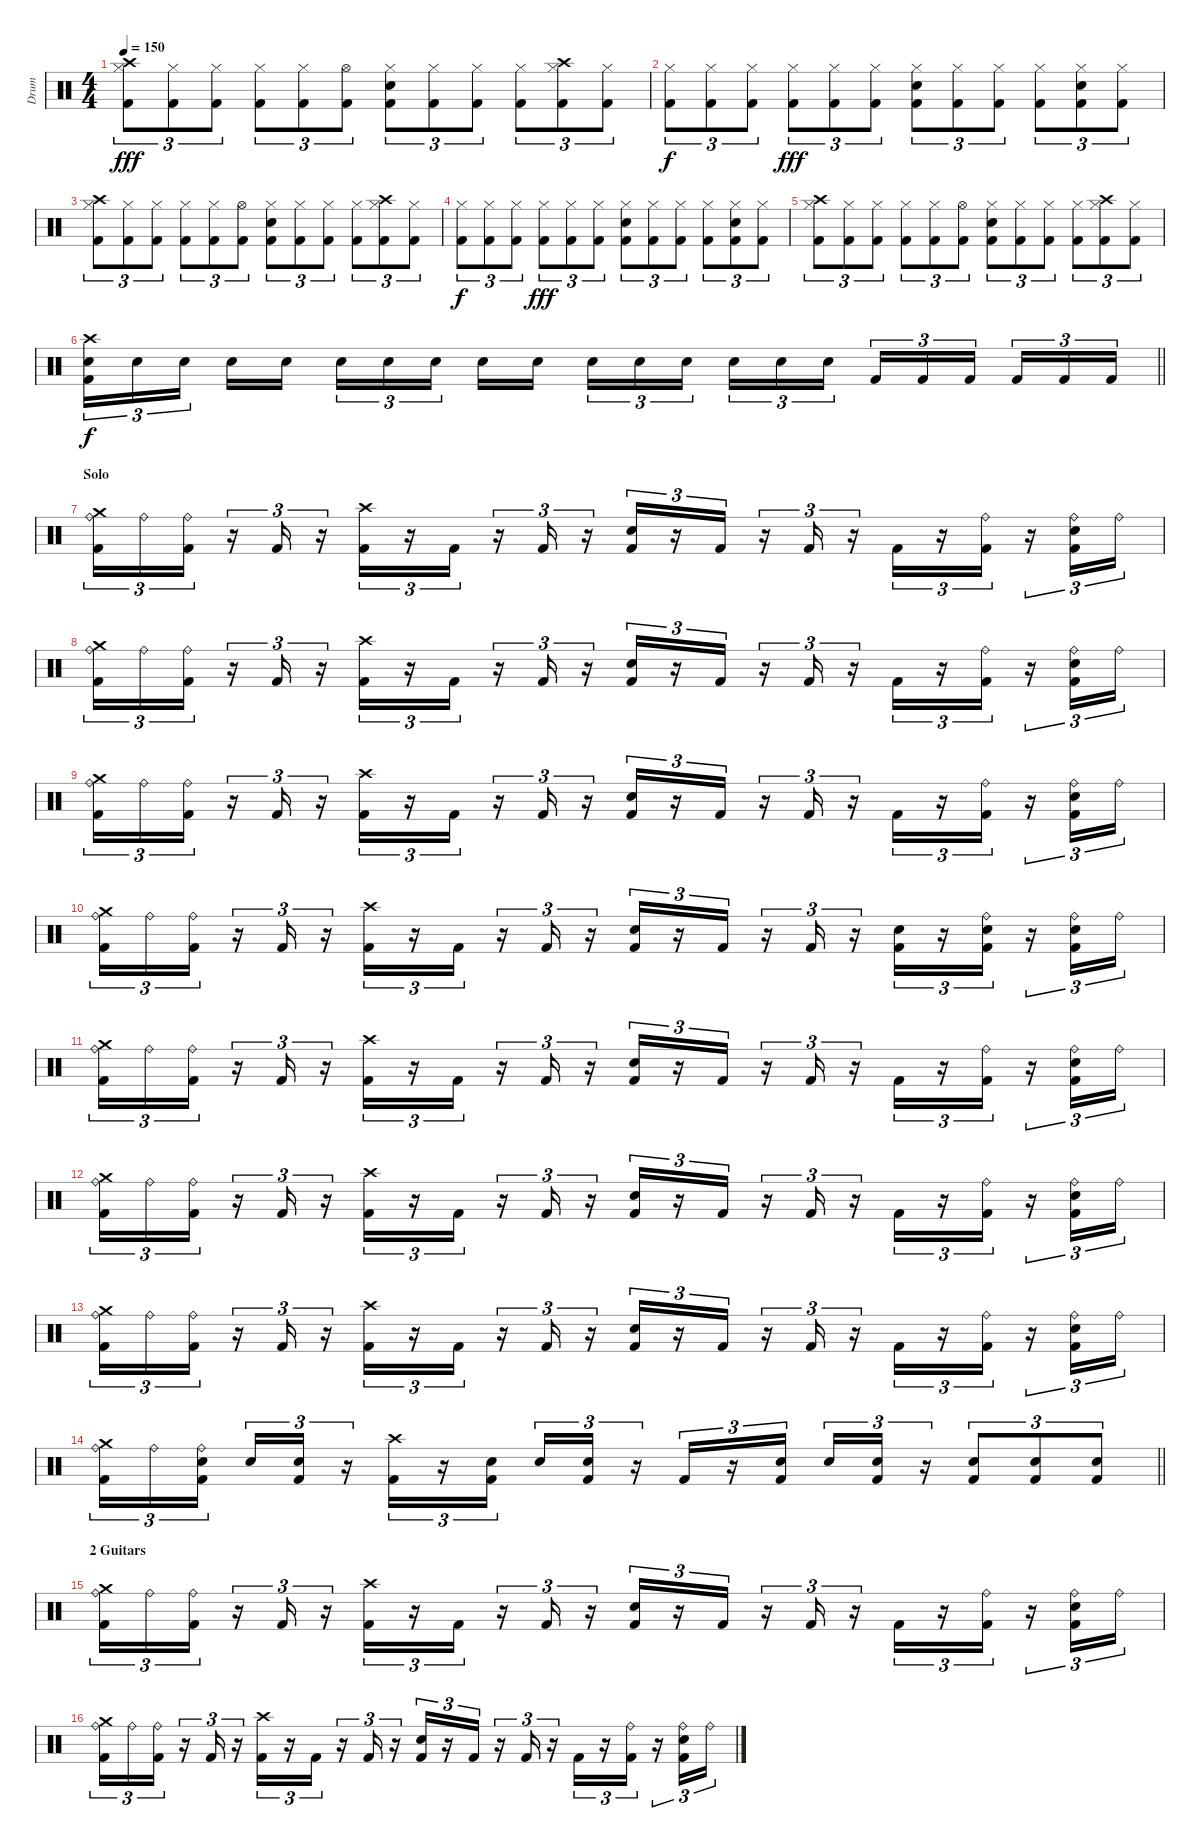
\track ("Drum" "Drum") {instrument percussion}
\staff {score}
\articulation defaults
\ts (4 4)
\tempo 150
\clef neutral
\ks c
("Crash high (hit)" "Hi-Hat (closed)" "Kick (hit) 2").8{tu (3 2) dy fff} ("Hi-Hat (closed)" "Kick (hit) 2").8{tu (3 2)} ("Hi-Hat (closed)" "Kick (hit) 2").8{tu (3 2)} ("Hi-Hat (closed)" "Kick (hit) 2").8{tu (3 2)} ("Hi-Hat (closed)" "Kick (hit) 2").8{tu (3 2)} ("Hi-Hat (open)" "Kick (hit) 2").8{tu (3 2)} ("Hi-Hat (closed)" "Electric Snare (hit)" "Kick (hit) 2").8{tu (3 2)} ("Hi-Hat (closed)" "Kick (hit) 2").8{tu (3 2)} ("Hi-Hat (closed)" "Kick (hit) 2").8{tu (3 2)} ("Hi-Hat (closed)" "Kick (hit) 2").8{tu (3 2)} ("Crash high (hit)" "Hi-Hat (closed)" "Kick (hit) 2").8{tu (3 2)} ("Hi-Hat (closed)" "Kick (hit) 2").8{tu (3 2)} |
("Hi-Hat (closed)" "Kick (hit) 2").8{tu (3 2) dy f} ("Hi-Hat (closed)" "Kick (hit) 2").8{tu (3 2)} ("Hi-Hat (closed)" "Kick (hit) 2").8{tu (3 2)} ("Hi-Hat (closed)" "Kick (hit) 2").8{tu (3 2) dy fff} ("Hi-Hat (closed)" "Kick (hit) 2").8{tu (3 2)} ("Hi-Hat (closed)" "Kick (hit) 2").8{tu (3 2)} ("Hi-Hat (closed)" "Electric Snare (hit)" "Kick (hit) 2").8{tu (3 2)} ("Hi-Hat (closed)" "Kick (hit) 2").8{tu (3 2)} ("Hi-Hat (closed)" "Kick (hit) 2").8{tu (3 2)} ("Hi-Hat (closed)" "Kick (hit) 2").8{tu (3 2)} ("Hi-Hat (closed)" "Electric Snare (hit)" "Kick (hit) 2").8{tu (3 2)} ("Hi-Hat (closed)" "Kick (hit) 2").8{tu (3 2)} |
("Crash high (hit)" "Hi-Hat (closed)" "Kick (hit) 2").8{tu (3 2)} ("Hi-Hat (closed)" "Kick (hit) 2").8{tu (3 2)} ("Hi-Hat (closed)" "Kick (hit) 2").8{tu (3 2)} ("Hi-Hat (closed)" "Kick (hit) 2").8{tu (3 2)} ("Hi-Hat (closed)" "Kick (hit) 2").8{tu (3 2)} ("Hi-Hat (open)" "Kick (hit) 2").8{tu (3 2)} ("Hi-Hat (closed)" "Electric Snare (hit)" "Kick (hit) 2").8{tu (3 2)} ("Hi-Hat (closed)" "Kick (hit) 2").8{tu (3 2)} ("Hi-Hat (closed)" "Kick (hit) 2").8{tu (3 2)} ("Hi-Hat (closed)" "Kick (hit) 2").8{tu (3 2)} ("Crash high (hit)" "Hi-Hat (closed)" "Kick (hit) 2").8{tu (3 2)} ("Hi-Hat (closed)" "Kick (hit) 2").8{tu (3 2)} |
("Hi-Hat (closed)" "Kick (hit) 2").8{tu (3 2) dy f} ("Hi-Hat (closed)" "Kick (hit) 2").8{tu (3 2)} ("Hi-Hat (closed)" "Kick (hit) 2").8{tu (3 2)} ("Hi-Hat (closed)" "Kick (hit) 2").8{tu (3 2) dy fff} ("Hi-Hat (closed)" "Kick (hit) 2").8{tu (3 2)} ("Hi-Hat (closed)" "Kick (hit) 2").8{tu (3 2)} ("Hi-Hat (closed)" "Electric Snare (hit)" "Kick (hit) 2").8{tu (3 2)} ("Hi-Hat (closed)" "Kick (hit) 2").8{tu (3 2)} ("Hi-Hat (closed)" "Kick (hit) 2").8{tu (3 2)} ("Hi-Hat (closed)" "Kick (hit) 2").8{tu (3 2)} ("Hi-Hat (closed)" "Electric Snare (hit)" "Kick (hit) 2").8{tu (3 2)} ("Hi-Hat (closed)" "Kick (hit) 2").8{tu (3 2)} |
("Crash high (hit)" "Hi-Hat (closed)" "Kick (hit) 2").8{tu (3 2)} ("Hi-Hat (closed)" "Kick (hit) 2").8{tu (3 2)} ("Hi-Hat (closed)" "Kick (hit) 2").8{tu (3 2)} ("Hi-Hat (closed)" "Kick (hit) 2").8{tu (3 2)} ("Hi-Hat (closed)" "Kick (hit) 2").8{tu (3 2)} ("Hi-Hat (open)" "Kick (hit) 2").8{tu (3 2)} ("Hi-Hat (closed)" "Electric Snare (hit)" "Kick (hit) 2").8{tu (3 2)} ("Hi-Hat (closed)" "Kick (hit) 2").8{tu (3 2)} ("Hi-Hat (closed)" "Kick (hit) 2").8{tu (3 2)} ("Hi-Hat (closed)" "Kick (hit) 2").8{tu (3 2)} ("Crash high (hit)" "Hi-Hat (closed)" "Kick (hit) 2").8{tu (3 2)} ("Hi-Hat (closed)" "Kick (hit) 2").8{tu (3 2)} |
\barLineRight lightlight
("Crash high (hit)" "Electric Snare (hit)" "Kick (hit) 2").16{tu (3 2) dy f} "Electric Snare (hit)".16{tu (3 2)} "Electric Snare (hit)".16{tu (3 2) beam splitsecondary} "Electric Snare (hit)".16 "Electric Snare (hit)".16 "Electric Snare (hit)".16{tu (3 2)} "Electric Snare (hit)".16{tu (3 2)} "Electric Snare (hit)".16{tu (3 2) beam splitsecondary} "Electric Snare (hit)".16 "Electric Snare (hit)".16 "Electric Snare (hit)".16{tu (3 2)} "Electric Snare (hit)".16{tu (3 2)} "Electric Snare (hit)".16{tu (3 2) beam splitsecondary} "Electric Snare (hit)".16{tu (3 2)} "Electric Snare (hit)".16{tu (3 2)} "Electric Snare (hit)".16{tu (3 2)} "Kick (hit) 2".16{tu (3 2)} "Kick (hit) 2".16{tu (3 2)} "Kick (hit) 2".16{tu (3 2) beam splitsecondary} "Kick (hit) 2".16{tu (3 2)} "Kick (hit) 2".16{tu (3 2)} "Kick (hit) 2".16{tu (3 2)} |
\section ("" "Solo")
("Crash medium (hit)" "Ride (bell)" "Kick (hit) 2").16{tu (3 2)} "Ride (bell)".16{tu (3 2)} ("Ride (bell)" "Kick (hit) 2").16{tu (3 2)} r.16{tu (3 2)} "Kick (hit) 2".16{tu (3 2)} r.16{tu (3 2)} ("Crash high (hit)" "Kick (hit) 2").16{tu (3 2)} r.16{tu (3 2)} "Kick (hit) 2".16{tu (3 2)} r.16{tu (3 2)} "Kick (hit) 2".16{tu (3 2)} r.16{tu (3 2)} ("Electric Snare (hit)" "Kick (hit) 2").16{tu (3 2)} r.16{tu (3 2)} "Kick (hit) 2".16{tu (3 2)} r.16{tu (3 2)} "Kick (hit) 2".16{tu (3 2)} r.16{tu (3 2)} "Kick (hit) 2".16{tu (3 2)} r.16{tu (3 2)} ("Ride (bell)" "Kick (hit) 2").16{tu (3 2)} r.16{tu (3 2)} ("Ride (bell)" "Electric Snare (hit)" "Kick (hit) 2").16{tu (3 2)} "Ride (bell)".16{tu (3 2)} |
("Crash medium (hit)" "Ride (bell)" "Kick (hit) 2").16{tu (3 2)} "Ride (bell)".16{tu (3 2)} ("Ride (bell)" "Kick (hit) 2").16{tu (3 2)} r.16{tu (3 2)} "Kick (hit) 2".16{tu (3 2)} r.16{tu (3 2)} ("Crash high (hit)" "Kick (hit) 2").16{tu (3 2)} r.16{tu (3 2)} "Kick (hit) 2".16{tu (3 2)} r.16{tu (3 2)} "Kick (hit) 2".16{tu (3 2)} r.16{tu (3 2)} ("Electric Snare (hit)" "Kick (hit) 2").16{tu (3 2)} r.16{tu (3 2)} "Kick (hit) 2".16{tu (3 2)} r.16{tu (3 2)} "Kick (hit) 2".16{tu (3 2)} r.16{tu (3 2)} "Kick (hit) 2".16{tu (3 2)} r.16{tu (3 2)} ("Ride (bell)" "Kick (hit) 2").16{tu (3 2)} r.16{tu (3 2)} ("Ride (bell)" "Electric Snare (hit)" "Kick (hit) 2").16{tu (3 2)} "Ride (bell)".16{tu (3 2)} |
("Crash medium (hit)" "Ride (bell)" "Kick (hit) 2").16{tu (3 2)} "Ride (bell)".16{tu (3 2)} ("Ride (bell)" "Kick (hit) 2").16{tu (3 2)} r.16{tu (3 2)} "Kick (hit) 2".16{tu (3 2)} r.16{tu (3 2)} ("Crash high (hit)" "Kick (hit) 2").16{tu (3 2)} r.16{tu (3 2)} "Kick (hit) 2".16{tu (3 2)} r.16{tu (3 2)} "Kick (hit) 2".16{tu (3 2)} r.16{tu (3 2)} ("Electric Snare (hit)" "Kick (hit) 2").16{tu (3 2)} r.16{tu (3 2)} "Kick (hit) 2".16{tu (3 2)} r.16{tu (3 2)} "Kick (hit) 2".16{tu (3 2)} r.16{tu (3 2)} "Kick (hit) 2".16{tu (3 2)} r.16{tu (3 2)} ("Ride (bell)" "Kick (hit) 2").16{tu (3 2)} r.16{tu (3 2)} ("Ride (bell)" "Electric Snare (hit)" "Kick (hit) 2").16{tu (3 2)} "Ride (bell)".16{tu (3 2)} |
("Crash medium (hit)" "Ride (bell)" "Kick (hit) 2").16{tu (3 2)} "Ride (bell)".16{tu (3 2)} ("Ride (bell)" "Kick (hit) 2").16{tu (3 2)} r.16{tu (3 2)} "Kick (hit) 2".16{tu (3 2)} r.16{tu (3 2)} ("Crash high (hit)" "Kick (hit) 2").16{tu (3 2)} r.16{tu (3 2)} "Kick (hit) 2".16{tu (3 2)} r.16{tu (3 2)} "Kick (hit) 2".16{tu (3 2)} r.16{tu (3 2)} ("Electric Snare (hit)" "Kick (hit) 2").16{tu (3 2)} r.16{tu (3 2)} "Kick (hit) 2".16{tu (3 2)} r.16{tu (3 2)} "Kick (hit) 2".16{tu (3 2)} r.16{tu (3 2)} ("Electric Snare (hit)" "Kick (hit) 2").16{tu (3 2)} r.16{tu (3 2)} ("Ride (bell)" "Electric Snare (hit)" "Kick (hit) 2").16{tu (3 2)} r.16{tu (3 2)} ("Ride (bell)" "Electric Snare (hit)" "Kick (hit) 2").16{tu (3 2)} "Ride (bell)".16{tu (3 2)} |
("Crash medium (hit)" "Ride (bell)" "Kick (hit) 2").16{tu (3 2)} "Ride (bell)".16{tu (3 2)} ("Ride (bell)" "Kick (hit) 2").16{tu (3 2)} r.16{tu (3 2)} "Kick (hit) 2".16{tu (3 2)} r.16{tu (3 2)} ("Crash high (hit)" "Kick (hit) 2").16{tu (3 2)} r.16{tu (3 2)} "Kick (hit) 2".16{tu (3 2)} r.16{tu (3 2)} "Kick (hit) 2".16{tu (3 2)} r.16{tu (3 2)} ("Electric Snare (hit)" "Kick (hit) 2").16{tu (3 2)} r.16{tu (3 2)} "Kick (hit) 2".16{tu (3 2)} r.16{tu (3 2)} "Kick (hit) 2".16{tu (3 2)} r.16{tu (3 2)} "Kick (hit) 2".16{tu (3 2)} r.16{tu (3 2)} ("Ride (bell)" "Kick (hit) 2").16{tu (3 2)} r.16{tu (3 2)} ("Ride (bell)" "Electric Snare (hit)" "Kick (hit) 2").16{tu (3 2)} "Ride (bell)".16{tu (3 2)} |
("Crash medium (hit)" "Ride (bell)" "Kick (hit) 2").16{tu (3 2)} "Ride (bell)".16{tu (3 2)} ("Ride (bell)" "Kick (hit) 2").16{tu (3 2)} r.16{tu (3 2)} "Kick (hit) 2".16{tu (3 2)} r.16{tu (3 2)} ("Crash high (hit)" "Kick (hit) 2").16{tu (3 2)} r.16{tu (3 2)} "Kick (hit) 2".16{tu (3 2)} r.16{tu (3 2)} "Kick (hit) 2".16{tu (3 2)} r.16{tu (3 2)} ("Electric Snare (hit)" "Kick (hit) 2").16{tu (3 2)} r.16{tu (3 2)} "Kick (hit) 2".16{tu (3 2)} r.16{tu (3 2)} "Kick (hit) 2".16{tu (3 2)} r.16{tu (3 2)} "Kick (hit) 2".16{tu (3 2)} r.16{tu (3 2)} ("Ride (bell)" "Kick (hit) 2").16{tu (3 2)} r.16{tu (3 2)} ("Ride (bell)" "Electric Snare (hit)" "Kick (hit) 2").16{tu (3 2)} "Ride (bell)".16{tu (3 2)} |
("Crash medium (hit)" "Ride (bell)" "Kick (hit) 2").16{tu (3 2)} "Ride (bell)".16{tu (3 2)} ("Ride (bell)" "Kick (hit) 2").16{tu (3 2)} r.16{tu (3 2)} "Kick (hit) 2".16{tu (3 2)} r.16{tu (3 2)} ("Crash high (hit)" "Kick (hit) 2").16{tu (3 2)} r.16{tu (3 2)} "Kick (hit) 2".16{tu (3 2)} r.16{tu (3 2)} "Kick (hit) 2".16{tu (3 2)} r.16{tu (3 2)} ("Electric Snare (hit)" "Kick (hit) 2").16{tu (3 2)} r.16{tu (3 2)} "Kick (hit) 2".16{tu (3 2)} r.16{tu (3 2)} "Kick (hit) 2".16{tu (3 2)} r.16{tu (3 2)} "Kick (hit) 2".16{tu (3 2)} r.16{tu (3 2)} ("Ride (bell)" "Kick (hit) 2").16{tu (3 2)} r.16{tu (3 2)} ("Ride (bell)" "Electric Snare (hit)" "Kick (hit) 2").16{tu (3 2)} "Ride (bell)".16{tu (3 2)} |
\barLineRight lightlight
("Crash medium (hit)" "Ride (bell)" "Kick (hit) 2").16{tu (3 2)} "Ride (bell)".16{tu (3 2)} ("Ride (bell)" "Electric Snare (hit)" "Kick (hit) 2").16{tu (3 2) beam splitsecondary} "Electric Snare (hit)".16{tu (3 2)} ("Electric Snare (hit)" "Kick (hit) 2").16{tu (3 2)} r.16{tu (3 2)} ("Crash high (hit)" "Kick (hit) 2").16{tu (3 2)} r.16{tu (3 2)} ("Electric Snare (hit)" "Kick (hit) 2").16{tu (3 2) beam splitsecondary} "Electric Snare (hit)".16{tu (3 2)} ("Electric Snare (hit)" "Kick (hit) 2").16{tu (3 2)} r.16{tu (3 2)} "Kick (hit) 2".16{tu (3 2)} r.16{tu (3 2)} ("Electric Snare (hit)" "Kick (hit) 2").16{tu (3 2) beam splitsecondary} "Electric Snare (hit)".16{tu (3 2)} ("Electric Snare (hit)" "Kick (hit) 2").16{tu (3 2)} r.16{tu (3 2)} ("Electric Snare (hit)" "Kick (hit) 2").8{tu (3 2)} ("Electric Snare (hit)" "Kick (hit) 2").8{tu (3 2)} ("Electric Snare (hit)" "Kick (hit) 2").8{tu (3 2)} |
\section ("" "2 Guitars")
("Crash medium (hit)" "Ride (bell)" "Kick (hit) 2").16{tu (3 2)} "Ride (bell)".16{tu (3 2)} ("Ride (bell)" "Kick (hit) 2").16{tu (3 2)} r.16{tu (3 2)} "Kick (hit) 2".16{tu (3 2)} r.16{tu (3 2)} ("Crash high (hit)" "Kick (hit) 2").16{tu (3 2)} r.16{tu (3 2)} "Kick (hit) 2".16{tu (3 2)} r.16{tu (3 2)} "Kick (hit) 2".16{tu (3 2)} r.16{tu (3 2)} ("Electric Snare (hit)" "Kick (hit) 2").16{tu (3 2)} r.16{tu (3 2)} "Kick (hit) 2".16{tu (3 2)} r.16{tu (3 2)} "Kick (hit) 2".16{tu (3 2)} r.16{tu (3 2)} "Kick (hit) 2".16{tu (3 2)} r.16{tu (3 2)} ("Ride (bell)" "Kick (hit) 2").16{tu (3 2)} r.16{tu (3 2)} ("Ride (bell)" "Electric Snare (hit)" "Kick (hit) 2").16{tu (3 2)} "Ride (bell)".16{tu (3 2)} |
("Crash medium (hit)" "Ride (bell)" "Kick (hit) 2").16{tu (3 2)} "Ride (bell)".16{tu (3 2)} ("Ride (bell)" "Kick (hit) 2").16{tu (3 2)} r.16{tu (3 2)} "Kick (hit) 2".16{tu (3 2)} r.16{tu (3 2)} ("Crash high (hit)" "Kick (hit) 2").16{tu (3 2)} r.16{tu (3 2)} "Kick (hit) 2".16{tu (3 2)} r.16{tu (3 2)} "Kick (hit) 2".16{tu (3 2)} r.16{tu (3 2)} ("Electric Snare (hit)" "Kick (hit) 2").16{tu (3 2)} r.16{tu (3 2)} "Kick (hit) 2".16{tu (3 2)} r.16{tu (3 2)} "Kick (hit) 2".16{tu (3 2)} r.16{tu (3 2)} "Kick (hit) 2".16{tu (3 2)} r.16{tu (3 2)} ("Ride (bell)" "Kick (hit) 2").16{tu (3 2)} r.16{tu (3 2)} ("Ride (bell)" "Electric Snare (hit)" "Kick (hit) 2").16{tu (3 2)} "Ride (bell)".16{tu (3 2)}
